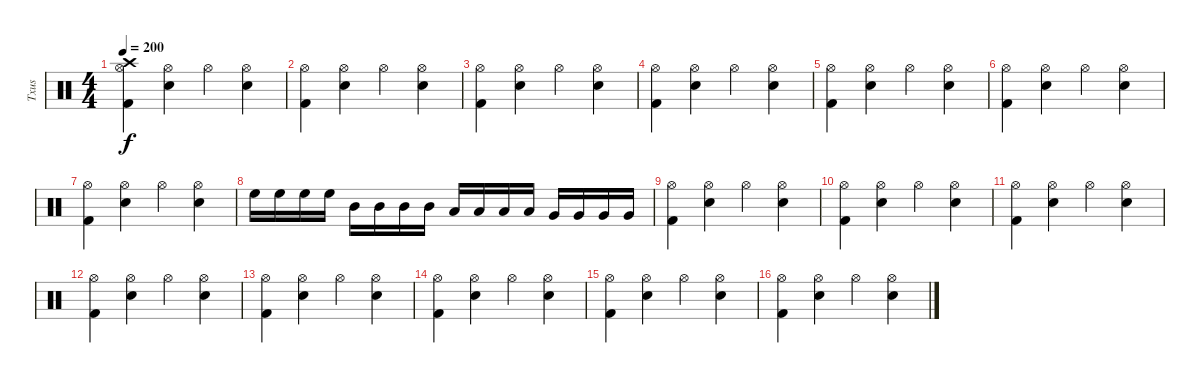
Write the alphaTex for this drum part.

\track ("Txus" "Txus") {instrument percussion}
\staff
\articulation defaults
\ts (4 4)
\tempo 200
\clef neutral
\ks c
("Kick (hit) 2" "Crash high (hit)" "Hi-Hat (open)").4{dy f} ("Electric Snare (hit)" "Hi-Hat (open)").4 "Hi-Hat (open)".4 ("Electric Snare (hit)" "Hi-Hat (open)").4 |
("Kick (hit) 2" "Hi-Hat (open)").4 ("Electric Snare (hit)" "Hi-Hat (open)").4 "Hi-Hat (open)".4 ("Electric Snare (hit)" "Hi-Hat (open)").4 |
("Kick (hit) 2" "Hi-Hat (open)").4 ("Electric Snare (hit)" "Hi-Hat (open)").4 "Hi-Hat (open)".4 ("Electric Snare (hit)" "Hi-Hat (open)").4 |
("Kick (hit) 2" "Hi-Hat (open)").4 ("Electric Snare (hit)" "Hi-Hat (open)").4 "Hi-Hat (open)".4 ("Electric Snare (hit)" "Hi-Hat (open)").4 |
("Kick (hit) 2" "Hi-Hat (open)").4 ("Electric Snare (hit)" "Hi-Hat (open)").4 "Hi-Hat (open)".4 ("Electric Snare (hit)" "Hi-Hat (open)").4 |
("Kick (hit) 2" "Hi-Hat (open)").4 ("Electric Snare (hit)" "Hi-Hat (open)").4 "Hi-Hat (open)".4 ("Electric Snare (hit)" "Hi-Hat (open)").4 |
("Kick (hit) 2" "Hi-Hat (open)").4 ("Electric Snare (hit)" "Hi-Hat (open)").4 "Hi-Hat (open)".4 ("Electric Snare (hit)" "Hi-Hat (open)").4 |
"High Floor Tom (hit)".16 "High Floor Tom (hit)".16 "High Floor Tom (hit)".16 "High Floor Tom (hit)".16 "Mid Tom (hit)".16 "Mid Tom (hit)".16 "Mid Tom (hit)".16 "Mid Tom (hit)".16 "Low Tom (hit)".16 "Low Tom (hit)".16 "Low Tom (hit)".16 "Low Tom (hit)".16 "Very Low Tom (hit)".16 "Very Low Tom (hit)".16 "Very Low Tom (hit)".16 "Very Low Tom (hit)".16 |
("Hi-Hat (open)" "Kick (hit) 2").4 ("Hi-Hat (open)" "Electric Snare (hit)").4 "Hi-Hat (open)".4 ("Hi-Hat (open)" "Electric Snare (hit)").4 |
("Hi-Hat (open)" "Kick (hit) 2").4 ("Hi-Hat (open)" "Electric Snare (hit)").4 "Hi-Hat (open)".4 ("Hi-Hat (open)" "Electric Snare (hit)").4 |
("Hi-Hat (open)" "Kick (hit) 2").4 ("Hi-Hat (open)" "Electric Snare (hit)").4 "Hi-Hat (open)".4 ("Hi-Hat (open)" "Electric Snare (hit)").4 |
("Hi-Hat (open)" "Kick (hit) 2").4 ("Hi-Hat (open)" "Electric Snare (hit)").4 "Hi-Hat (open)".4 ("Hi-Hat (open)" "Electric Snare (hit)").4 |
("Hi-Hat (open)" "Kick (hit) 2").4 ("Hi-Hat (open)" "Electric Snare (hit)").4 "Hi-Hat (open)".4 ("Hi-Hat (open)" "Electric Snare (hit)").4 |
("Hi-Hat (open)" "Kick (hit) 2").4 ("Hi-Hat (open)" "Electric Snare (hit)").4 "Hi-Hat (open)".4 ("Hi-Hat (open)" "Electric Snare (hit)").4 |
("Hi-Hat (open)" "Kick (hit) 2").4 ("Hi-Hat (open)" "Electric Snare (hit)").4 "Hi-Hat (open)".4 ("Hi-Hat (open)" "Electric Snare (hit)").4 |
("Hi-Hat (open)" "Kick (hit) 2").4 ("Hi-Hat (open)" "Electric Snare (hit)").4 "Hi-Hat (open)".4 ("Hi-Hat (open)" "Electric Snare (hit)").4
